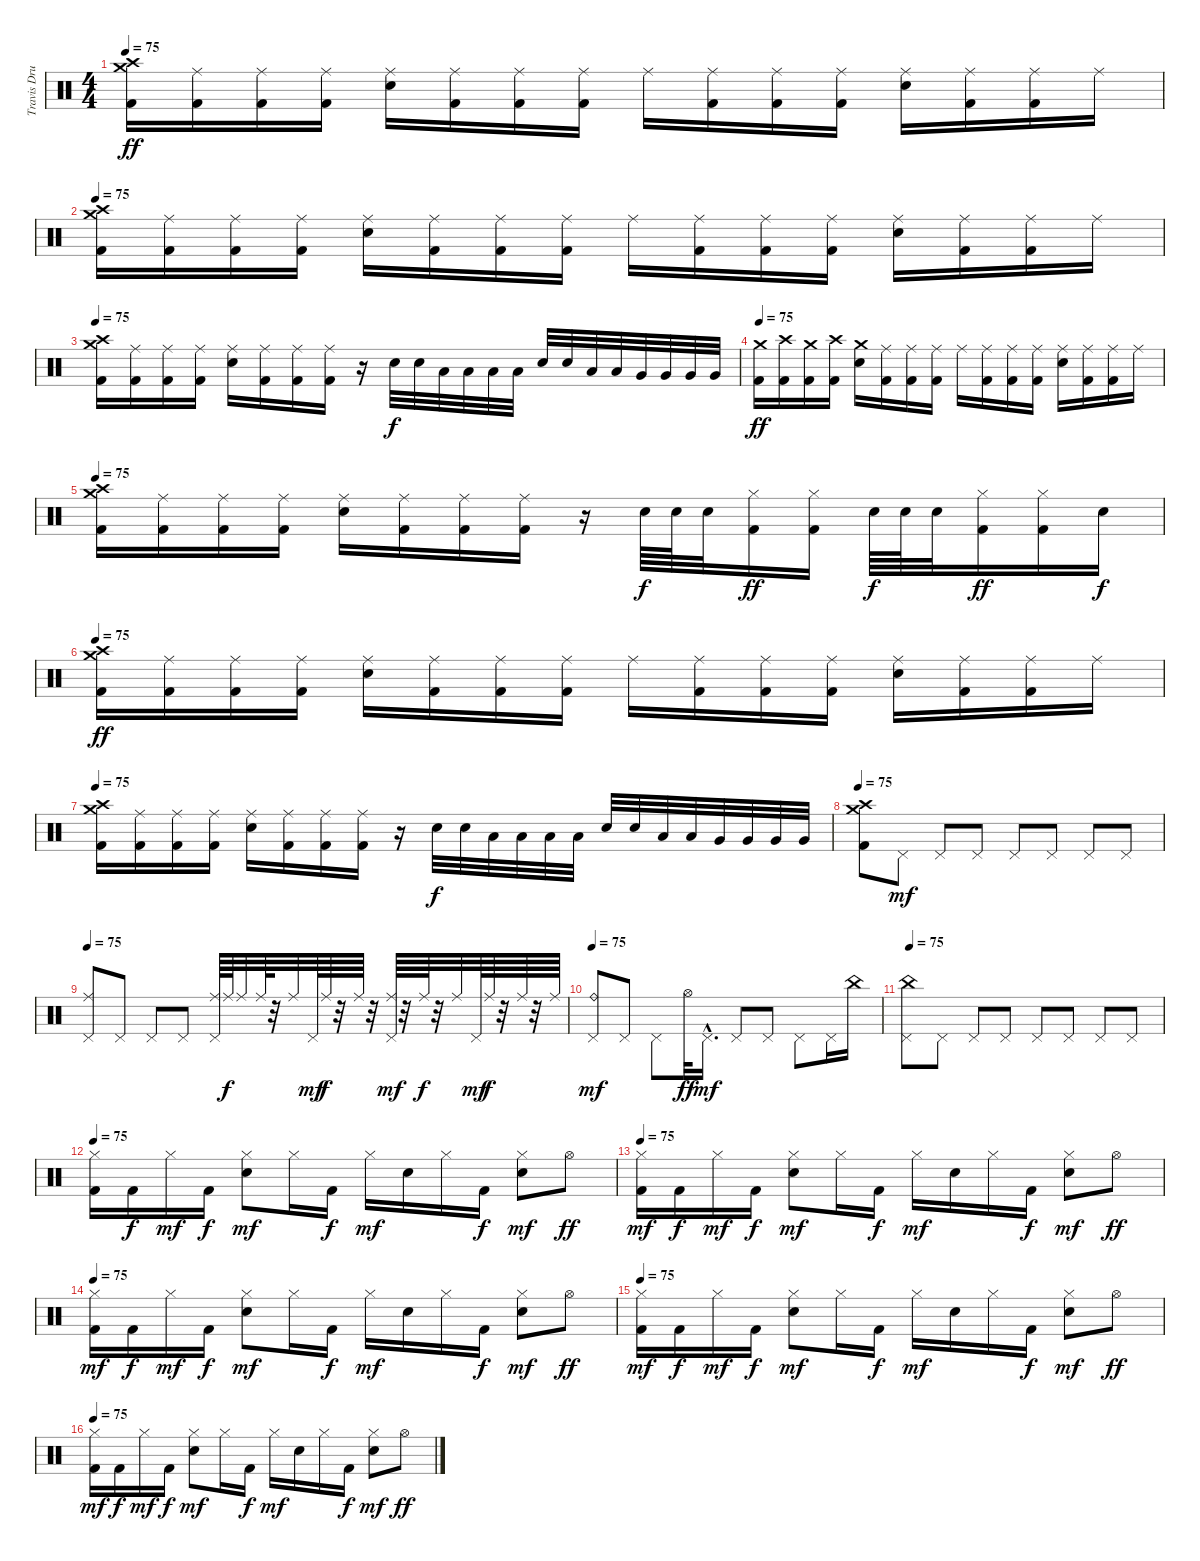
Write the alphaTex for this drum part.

\track ("Travis Drums" "Travis Dru") {instrument percussion}
\staff {score}
\articulation defaults
\ts (4 4)
\tempo 75
\clef neutral
\ks c
("Crash medium (hit)" "Crash high (hit)" "Kick (hit) 2").16{dy ff} ("Ride (middle)" "Kick (hit) 2").16 ("Ride (middle)" "Kick (hit) 2").16 ("Ride (middle)" "Kick (hit) 2").16 ("Ride (middle)" "Electric Snare (hit)").16 ("Ride (middle)" "Kick (hit) 2").16 ("Ride (middle)" "Kick (hit) 2").16 ("Ride (middle)" "Kick (hit) 2").16 "Ride (middle)".16 ("Ride (middle)" "Kick (hit) 2").16 ("Ride (middle)" "Kick (hit) 2").16 ("Ride (middle)" "Kick (hit) 2").16 ("Ride (middle)" "Electric Snare (hit)").16 ("Ride (middle)" "Kick (hit) 2").16 ("Ride (middle)" "Kick (hit) 2").16 "Ride (middle)".16 |
\tempo 75
("Crash medium (hit)" "Crash high (hit)" "Kick (hit) 2").16 ("Ride (middle)" "Kick (hit) 2").16 ("Ride (middle)" "Kick (hit) 2").16 ("Ride (middle)" "Kick (hit) 2").16 ("Ride (middle)" "Electric Snare (hit)").16 ("Ride (middle)" "Kick (hit) 2").16 ("Ride (middle)" "Kick (hit) 2").16 ("Ride (middle)" "Kick (hit) 2").16 "Ride (middle)".16 ("Ride (middle)" "Kick (hit) 2").16 ("Ride (middle)" "Kick (hit) 2").16 ("Ride (middle)" "Kick (hit) 2").16 ("Ride (middle)" "Electric Snare (hit)").16 ("Ride (middle)" "Kick (hit) 2").16 ("Ride (middle)" "Kick (hit) 2").16 "Ride (middle)".16 |
\tempo 75
("Crash medium (hit)" "Crash high (hit)" "Kick (hit) 2").16 ("Ride (middle)" "Kick (hit) 2").16 ("Ride (middle)" "Kick (hit) 2").16 ("Ride (middle)" "Kick (hit) 2").16 ("Ride (middle)" "Electric Snare (hit)").16 ("Ride (middle)" "Kick (hit) 2").16 ("Ride (middle)" "Kick (hit) 2").16 ("Ride (middle)" "Kick (hit) 2").16 r.16 "Electric Snare (hit)".32{dy f} "Electric Snare (hit)".32 "Low Tom (hit)".32 "Low Tom (hit)".32 "Low Tom (hit)".32 "Low Tom (hit)".32 "Electric Snare (hit)".32 "Electric Snare (hit)".32 "Low Tom (hit)".32 "Low Tom (hit)".32 "Very Low Tom (hit)".32 "Very Low Tom (hit)".32 "Very Low Tom (hit)".32 "Very Low Tom (hit)".32 |
\tempo 75
("Crash medium (hit)" "Kick (hit) 2").16{dy ff} ("Crash high (hit)" "Kick (hit) 2").16 ("Crash medium (hit)" "Kick (hit) 2").16 ("Crash high (hit)" "Kick (hit) 2").16 ("Crash medium (hit)" "Electric Snare (hit)").16 ("Ride (middle)" "Kick (hit) 2").16 ("Ride (middle)" "Kick (hit) 2").16 ("Ride (middle)" "Kick (hit) 2").16 "Ride (middle)".16 ("Ride (middle)" "Kick (hit) 2").16 ("Ride (middle)" "Kick (hit) 2").16 ("Ride (middle)" "Kick (hit) 2").16 ("Ride (middle)" "Electric Snare (hit)").16 ("Ride (middle)" "Kick (hit) 2").16 ("Ride (middle)" "Kick (hit) 2").16 "Ride (middle)".16 |
\tempo 75
("Crash medium (hit)" "Crash high (hit)" "Kick (hit) 2").16 ("Ride (middle)" "Kick (hit) 2").16 ("Ride (middle)" "Kick (hit) 2").16 ("Ride (middle)" "Kick (hit) 2").16 ("Ride (middle)" "Electric Snare (hit)").16 ("Ride (middle)" "Kick (hit) 2").16 ("Ride (middle)" "Kick (hit) 2").16 ("Ride (middle)" "Kick (hit) 2").16 r.16 "Electric Snare (hit)".64{dy f} "Electric Snare (hit)".64 "Electric Snare (hit)".32 ("Hi-Hat (closed)" "Kick (hit) 2").16{dy ff} ("Hi-Hat (closed)" "Kick (hit) 2").16 "Electric Snare (hit)".64{dy f} "Electric Snare (hit)".64 "Electric Snare (hit)".32 ("Hi-Hat (closed)" "Kick (hit) 2").16{dy ff} ("Hi-Hat (closed)" "Kick (hit) 2").16 "Electric Snare (hit)".16{dy f} |
\tempo 75
("Crash medium (hit)" "Crash high (hit)" "Kick (hit) 2").16{dy ff} ("Ride (middle)" "Kick (hit) 2").16 ("Ride (middle)" "Kick (hit) 2").16 ("Ride (middle)" "Kick (hit) 2").16 ("Ride (middle)" "Electric Snare (hit)").16 ("Ride (middle)" "Kick (hit) 2").16 ("Ride (middle)" "Kick (hit) 2").16 ("Ride (middle)" "Kick (hit) 2").16 "Ride (middle)".16 ("Ride (middle)" "Kick (hit) 2").16 ("Ride (middle)" "Kick (hit) 2").16 ("Ride (middle)" "Kick (hit) 2").16 ("Ride (middle)" "Electric Snare (hit)").16 ("Ride (middle)" "Kick (hit) 2").16 ("Ride (middle)" "Kick (hit) 2").16 "Ride (middle)".16 |
\tempo 75
("Crash medium (hit)" "Crash high (hit)" "Kick (hit) 2").16 ("Ride (middle)" "Kick (hit) 2").16 ("Ride (middle)" "Kick (hit) 2").16 ("Ride (middle)" "Kick (hit) 2").16 ("Ride (middle)" "Electric Snare (hit)").16 ("Ride (middle)" "Kick (hit) 2").16 ("Ride (middle)" "Kick (hit) 2").16 ("Ride (middle)" "Kick (hit) 2").16 r.16 "Electric Snare (hit)".32{dy f} "Electric Snare (hit)".32 "Low Tom (hit)".32 "Low Tom (hit)".32 "Low Tom (hit)".32 "Low Tom (hit)".32 "Electric Snare (hit)".32 "Electric Snare (hit)".32 "Low Tom (hit)".32 "Low Tom (hit)".32 "Very Low Tom (hit)".32 "Very Low Tom (hit)".32 "Very Low Tom (hit)".32 "Very Low Tom (hit)".32 |
\tempo 75
("Crash medium (hit)" "Crash high (hit)" "Kick (hit) 2").8 "Pedal Hi-Hat (hit)".8{dy mf} "Pedal Hi-Hat (hit)".8 "Pedal Hi-Hat (hit)".8 "Pedal Hi-Hat (hit)".8 "Pedal Hi-Hat (hit)".8 "Pedal Hi-Hat (hit)".8 "Pedal Hi-Hat (hit)".8 |
\tempo 75
("Ride (middle)" "Pedal Hi-Hat (hit)").8 "Pedal Hi-Hat (hit)".8 "Pedal Hi-Hat (hit)".8 "Pedal Hi-Hat (hit)".8 ("Ride (middle)" "Pedal Hi-Hat (hit)").64 "Ride (middle)".64{dy f} "Ride (middle)".32 "Ride (middle)".64 r.32 "Ride (middle)".32 "Pedal Hi-Hat (hit)".64{dy mf} "Ride (middle)".64{dy f} r.32 "Ride (middle)".64 r.32 ("Ride (middle)" "Pedal Hi-Hat (hit)").64{dy mf} r.32 "Ride (middle)".64{dy f} r.32 "Ride (middle)".32 "Pedal Hi-Hat (hit)".64{dy mf} "Ride (middle)".64{dy f} r.32 "Ride (middle)".64 r.32 "Ride (middle)".64 |
\tempo 75
("Ride (bell)" "Pedal Hi-Hat (hit)").8{dy mf} "Pedal Hi-Hat (hit)".8 "Pedal Hi-Hat (hit)".8 "Hi-Hat (open)".32{dy ff} "Pedal Hi-Hat (hit)"{hac}.16{d dy mf} "Pedal Hi-Hat (hit)".8 "Pedal Hi-Hat (hit)".8 "Pedal Hi-Hat (hit)".8 "Pedal Hi-Hat (hit)".16 "China (hit)".16 |
\tempo 75
("China (hit)" "Pedal Hi-Hat (hit)").8 "Pedal Hi-Hat (hit)".8 "Pedal Hi-Hat (hit)".8 "Pedal Hi-Hat (hit)".8 "Pedal Hi-Hat (hit)".8 "Pedal Hi-Hat (hit)".8 "Pedal Hi-Hat (hit)".8 "Pedal Hi-Hat (hit)".8 |
\tempo 75
("Hi-Hat (closed)" "Kick (hit) 2").16 "Kick (hit) 2".16{dy f} "Hi-Hat (closed)".16{dy mf} "Kick (hit) 2".16{dy f} ("Hi-Hat (closed)" "Electric Snare (hit)").8{dy mf} "Hi-Hat (closed)".16 "Kick (hit) 2".16{dy f} "Hi-Hat (closed)".16{dy mf} "Electric Snare (hit)".16 "Hi-Hat (closed)".16 "Kick (hit) 2".16{dy f} ("Hi-Hat (closed)" "Electric Snare (hit)").8{dy mf} "Hi-Hat (open)".8{dy ff} |
\tempo 75
("Hi-Hat (closed)" "Kick (hit) 2").16{dy mf} "Kick (hit) 2".16{dy f} "Hi-Hat (closed)".16{dy mf} "Kick (hit) 2".16{dy f} ("Hi-Hat (closed)" "Electric Snare (hit)").8{dy mf} "Hi-Hat (closed)".16 "Kick (hit) 2".16{dy f} "Hi-Hat (closed)".16{dy mf} "Electric Snare (hit)".16 "Hi-Hat (closed)".16 "Kick (hit) 2".16{dy f} ("Hi-Hat (closed)" "Electric Snare (hit)").8{dy mf} "Hi-Hat (open)".8{dy ff} |
\tempo 75
("Hi-Hat (closed)" "Kick (hit) 2").16{dy mf} "Kick (hit) 2".16{dy f} "Hi-Hat (closed)".16{dy mf} "Kick (hit) 2".16{dy f} ("Hi-Hat (closed)" "Electric Snare (hit)").8{dy mf} "Hi-Hat (closed)".16 "Kick (hit) 2".16{dy f} "Hi-Hat (closed)".16{dy mf} "Electric Snare (hit)".16 "Hi-Hat (closed)".16 "Kick (hit) 2".16{dy f} ("Hi-Hat (closed)" "Electric Snare (hit)").8{dy mf} "Hi-Hat (open)".8{dy ff} |
\tempo 75
("Hi-Hat (closed)" "Kick (hit) 2").16{dy mf} "Kick (hit) 2".16{dy f} "Hi-Hat (closed)".16{dy mf} "Kick (hit) 2".16{dy f} ("Hi-Hat (closed)" "Electric Snare (hit)").8{dy mf} "Hi-Hat (closed)".16 "Kick (hit) 2".16{dy f} "Hi-Hat (closed)".16{dy mf} "Electric Snare (hit)".16 "Hi-Hat (closed)".16 "Kick (hit) 2".16{dy f} ("Hi-Hat (closed)" "Electric Snare (hit)").8{dy mf} "Hi-Hat (open)".8{dy ff} |
\tempo 75
("Hi-Hat (closed)" "Kick (hit) 2").16{dy mf} "Kick (hit) 2".16{dy f} "Hi-Hat (closed)".16{dy mf} "Kick (hit) 2".16{dy f} ("Hi-Hat (closed)" "Electric Snare (hit)").8{dy mf} "Hi-Hat (closed)".16 "Kick (hit) 2".16{dy f} "Hi-Hat (closed)".16{dy mf} "Electric Snare (hit)".16 "Hi-Hat (closed)".16 "Kick (hit) 2".16{dy f} ("Hi-Hat (closed)" "Electric Snare (hit)").8{dy mf} "Hi-Hat (open)".8{dy ff}
